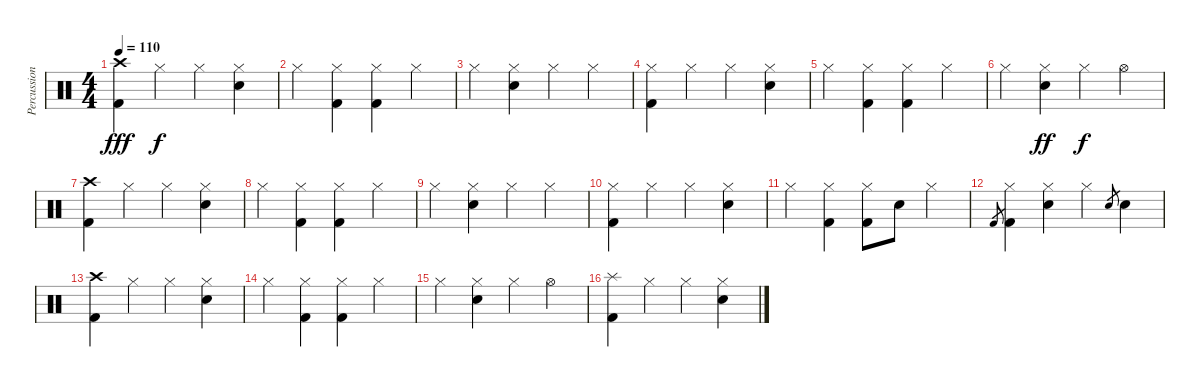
\track ("Percussion" "Percussion") {instrument percussion}
\staff {score}
\articulation defaults
\ts (4 4)
\tempo 110
\clef neutral
\ks c
("Crash high (hit)" "Kick (hit) 2").4{dy fff} "Hi-Hat (closed)".4{dy f} "Hi-Hat (closed)".4 ("Hi-Hat (closed)" "Electric Snare (hit)").4 |
"Hi-Hat (closed)".4 ("Hi-Hat (closed)" "Kick (hit) 2").4 ("Hi-Hat (closed)" "Kick (hit) 2").4 "Hi-Hat (closed)".4 |
"Hi-Hat (closed)".4 ("Hi-Hat (closed)" "Electric Snare (hit)").4 "Hi-Hat (closed)".4 "Hi-Hat (closed)".4 |
("Hi-Hat (closed)" "Kick (hit) 2").4 "Hi-Hat (closed)".4 "Hi-Hat (closed)".4 ("Hi-Hat (closed)" "Electric Snare (hit)").4 |
"Hi-Hat (closed)".4 ("Hi-Hat (closed)" "Kick (hit) 2").4 ("Hi-Hat (closed)" "Kick (hit) 2").4 "Hi-Hat (closed)".4 |
"Hi-Hat (closed)".4 ("Hi-Hat (closed)" "Electric Snare (hit)").4{dy ff} "Hi-Hat (closed)".4{dy f} "Hi-Hat (open)".4 |
("Crash high (hit)" "Kick (hit) 2").4 "Hi-Hat (closed)".4 "Hi-Hat (closed)".4 ("Hi-Hat (closed)" "Electric Snare (hit)").4 |
"Hi-Hat (closed)".4 ("Hi-Hat (closed)" "Kick (hit) 2").4 ("Hi-Hat (closed)" "Kick (hit) 2").4 "Hi-Hat (closed)".4 |
"Hi-Hat (closed)".4 ("Hi-Hat (closed)" "Electric Snare (hit)").4 "Hi-Hat (closed)".4 "Hi-Hat (closed)".4 |
("Hi-Hat (closed)" "Kick (hit) 2").4 "Hi-Hat (closed)".4 "Hi-Hat (closed)".4 ("Hi-Hat (closed)" "Electric Snare (hit)").4 |
"Hi-Hat (closed)".4 ("Hi-Hat (closed)" "Kick (hit) 2").4 ("Hi-Hat (closed)" "Kick (hit) 2").8 "Electric Snare (hit)".8 "Hi-Hat (closed)".4 |
"Kick (hit) 2".8{gr} ("Hi-Hat (closed)" "Kick (hit) 2").4 ("Hi-Hat (closed)" "Electric Snare (hit)").4 "Hi-Hat (closed)".4 "Electric Snare (hit)".8{gr} "Electric Snare (hit)".4 |
("Crash high (hit)" "Kick (hit) 2").4 "Hi-Hat (closed)".4 "Hi-Hat (closed)".4 ("Hi-Hat (closed)" "Electric Snare (hit)").4 |
"Hi-Hat (closed)".4 ("Hi-Hat (closed)" "Kick (hit) 2").4 ("Hi-Hat (closed)" "Kick (hit) 2").4 "Hi-Hat (closed)".4 |
"Hi-Hat (closed)".4 ("Hi-Hat (closed)" "Electric Snare (hit)").4 "Hi-Hat (closed)".4 "Hi-Hat (open)".4 |
("Splash (hit)" "Kick (hit) 2").4 "Hi-Hat (closed)".4 "Hi-Hat (closed)".4 ("Hi-Hat (closed)" "Electric Snare (hit)").4
